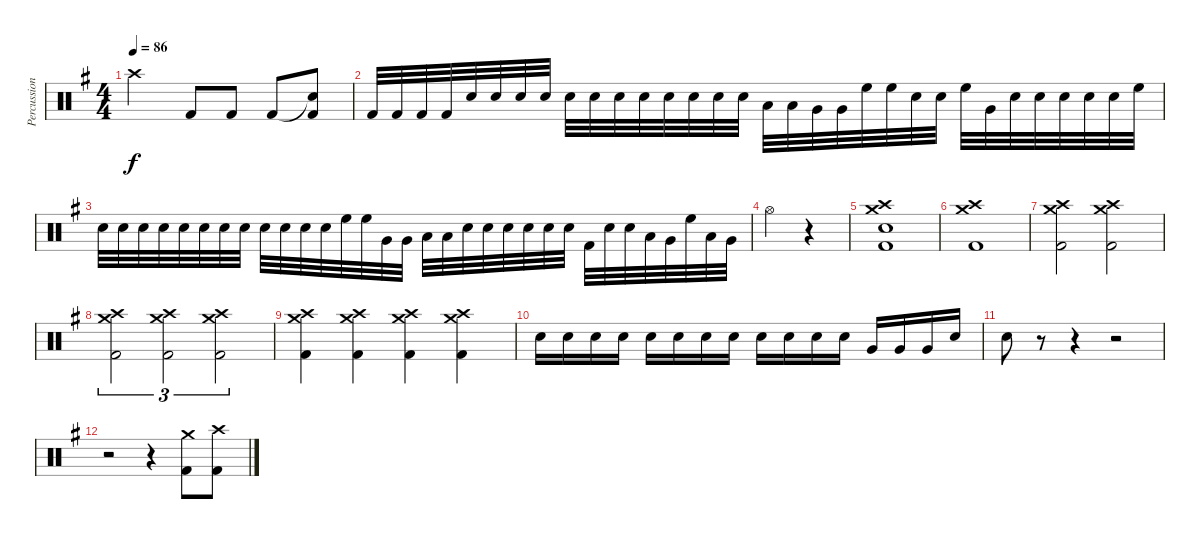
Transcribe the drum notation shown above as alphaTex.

\track ("Percussion" "Percussion") {instrument percussion}
\staff {score}
\articulation defaults
\ts (4 4)
\tempo 86
\clef neutral
\ks eminor "Crash high (hit)".2{dy f} "Kick (hit) 2".8 "Kick (hit) 2".8 "Kick (hit) 2".8
("Snare (hit)"{t} "Kick (hit) 2").8 |
"Kick (hit) 2".32 "Kick (hit) 2".32 "Kick (hit) 2".32 "Kick (hit) 2".32 "Snare (hit) 2".32 "Snare (hit) 2".32 "Snare (hit) 2".32 "Snare (hit) 2".32 "Electric Snare (hit)".32 "Electric Snare (hit)".32 "Electric Snare (hit)".32 "Electric Snare (hit)".32 "Snare (hit) 2".32 "Snare (hit) 2".32 "Snare (hit) 2".32 "Snare (hit) 2".32 "Low Floor Tom (hit)".32 "Low Floor Tom (hit)".32 "Very Low Tom (hit)".32 "Very Low Tom (hit)".32 "High Floor Tom (hit)".32 "High Floor Tom (hit)".32 "Snare (hit) 2".32 "Electric Snare (hit)".32 "High Floor Tom (hit)".32 "Very Low Tom (hit)".32 "Snare (hit) 2".32 "Electric Snare (hit)".32 "Snare (hit) 2".32 "Electric Snare (hit)".32 "Snare (hit) 2".32 "High Floor Tom (hit)".32 |
"Snare (hit) 2".32 "Snare (hit) 2".32 "Snare (hit) 2".32 "Snare (hit) 2".32 "Electric Snare (hit)".32 "Electric Snare (hit)".32 "Electric Snare (hit)".32 "Electric Snare (hit)".32 "Snare (hit) 2".32 "Snare (hit) 2".32 "Electric Snare (hit)".32 "Electric Snare (hit)".32 "High Floor Tom (hit)".32 "High Floor Tom (hit)".32 "Very Low Tom (hit)".32 "Very Low Tom (hit)".32 "Low Floor Tom (hit)".32 "Low Floor Tom (hit)".32 "Snare (hit) 2".32 "Snare (hit) 2".32 "Electric Snare (hit)".32 "Electric Snare (hit)".32 "Snare (hit) 2".32 "Electric Snare (hit)".32 "Kick (hit) 2".32 "Snare (hit) 2".32 "Electric Snare (hit)".32 "Low Floor Tom (hit)".32 "Very Low Tom (hit)".32 "High Floor Tom (hit)".32 "Low Floor Tom (hit)".32 "Very Low Tom (hit)".32 |
"Hi-Hat (open)".4 r.4 |
("Crash medium (hit)" "Crash high (hit)" "Snare (hit) 2" "Kick (hit) 2").1 |
("Crash high (hit)" "Crash medium (hit)" "Kick (hit) 2").1 |
("Crash high (hit)" "Crash medium (hit)" "Kick (hit) 2").2 ("Crash high (hit)" "Crash medium (hit)" "Kick (hit) 2").2 |
("Crash high (hit)" "Crash medium (hit)" "Kick (hit) 2").2{tu (3 2)} ("Crash high (hit)" "Crash medium (hit)" "Kick (hit) 2").2{tu (3 2)} ("Crash high (hit)" "Crash medium (hit)" "Kick (hit) 2").2{tu (3 2)} |
("Crash high (hit)" "Crash medium (hit)" "Kick (hit) 2").4 ("Crash high (hit)" "Crash medium (hit)" "Kick (hit) 2").4 ("Crash high (hit)" "Crash medium (hit)" "Kick (hit) 2").4 ("Crash high (hit)" "Crash medium (hit)" "Kick (hit) 2").4 |
"Snare (hit) 2".16 "Snare (hit) 2".16 "Snare (hit) 2".16 "Snare (hit) 2".16 "Snare (hit) 2".16 "Snare (hit) 2".16 "Snare (hit) 2".16 "Snare (hit) 2".16 "Snare (hit) 2".16 "Snare (hit) 2".16 "Snare (hit) 2".16 "Snare (hit) 2".16 "Very Low Tom (hit)".16 "Very Low Tom (hit)".16 "Very Low Tom (hit)".16 "Snare (hit) 2".16 |
"Snare (hit) 2".8 r.8 r.4 r.2 |
r.2 r.4 ("Crash medium (hit)" "Kick (hit) 2").8 ("Crash high (hit)" "Kick (hit) 2").8
